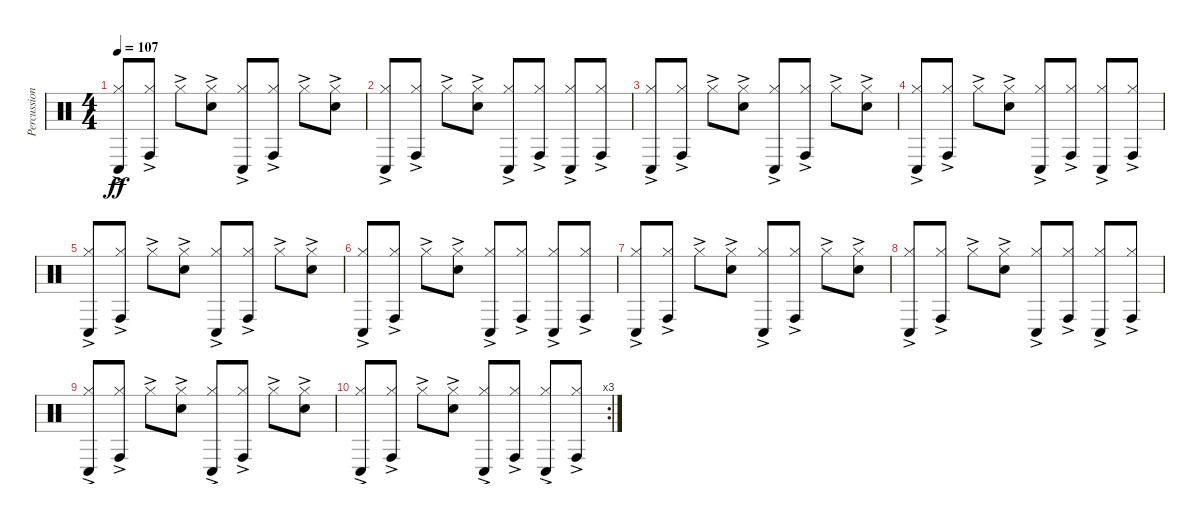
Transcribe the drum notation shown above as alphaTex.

\track ("Percussion" "Percussion") {instrument percussion}
\staff {score}
\articulation defaults
\ts (4 4)
\tempo 107
\clef neutral
\ks c
("Hi-Hat (closed)"{ac} "Conga low (hit)"{ac}).8{dy ff} ("Hi-Hat (closed)"{ac} "Conga high (hit)"{ac}).8 "Hi-Hat (closed)"{ac}.8 ("Hi-Hat (closed)"{ac} "Hand Clap (hit)"{ac}).8 ("Hi-Hat (closed)"{ac} "Conga low (hit)"{ac}).8 ("Hi-Hat (closed)"{ac} "Conga high (hit)"{ac}).8 "Hi-Hat (closed)"{ac}.8 ("Hi-Hat (closed)"{ac} "Hand Clap (hit)"{ac}).8 |
("Hi-Hat (closed)"{ac} "Conga low (hit)"{ac}).8 ("Hi-Hat (closed)"{ac} "Conga high (hit)"{ac}).8 "Hi-Hat (closed)"{ac}.8 ("Hi-Hat (closed)"{ac} "Hand Clap (hit)"{ac}).8 ("Hi-Hat (closed)"{ac} "Conga low (hit)"{ac}).8 ("Hi-Hat (closed)"{ac} "Conga high (hit)"{ac}).8 ("Hi-Hat (closed)"{ac} "Conga low (hit)"{ac}).8 ("Hi-Hat (closed)"{ac} "Conga high (hit)"{ac}).8 |
("Hi-Hat (closed)"{ac} "Conga low (hit)"{ac}).8 ("Hi-Hat (closed)"{ac} "Conga high (hit)"{ac}).8 "Hi-Hat (closed)"{ac}.8 ("Hi-Hat (closed)"{ac} "Hand Clap (hit)"{ac}).8 ("Hi-Hat (closed)"{ac} "Conga low (hit)"{ac}).8 ("Hi-Hat (closed)"{ac} "Conga high (hit)"{ac}).8 "Hi-Hat (closed)"{ac}.8 ("Hi-Hat (closed)"{ac} "Hand Clap (hit)"{ac}).8 |
("Hi-Hat (closed)"{ac} "Conga low (hit)"{ac}).8 ("Hi-Hat (closed)"{ac} "Conga high (hit)"{ac}).8 "Hi-Hat (closed)"{ac}.8 ("Hi-Hat (closed)"{ac} "Hand Clap (hit)"{ac}).8 ("Hi-Hat (closed)"{ac} "Conga low (hit)"{ac}).8 ("Hi-Hat (closed)"{ac} "Conga high (hit)"{ac}).8 ("Hi-Hat (closed)"{ac} "Conga low (hit)"{ac}).8 ("Hi-Hat (closed)"{ac} "Conga high (hit)"{ac}).8 |
("Hi-Hat (closed)"{ac} "Conga low (hit)"{ac}).8 ("Hi-Hat (closed)"{ac} "Conga high (hit)"{ac}).8 "Hi-Hat (closed)"{ac}.8 ("Hi-Hat (closed)"{ac} "Hand Clap (hit)"{ac}).8 ("Hi-Hat (closed)"{ac} "Conga low (hit)"{ac}).8 ("Hi-Hat (closed)"{ac} "Conga high (hit)"{ac}).8 "Hi-Hat (closed)"{ac}.8 ("Hi-Hat (closed)"{ac} "Hand Clap (hit)"{ac}).8 |
("Hi-Hat (closed)"{ac} "Conga low (hit)"{ac}).8 ("Hi-Hat (closed)"{ac} "Conga high (hit)"{ac}).8 "Hi-Hat (closed)"{ac}.8 ("Hi-Hat (closed)"{ac} "Hand Clap (hit)"{ac}).8 ("Hi-Hat (closed)"{ac} "Conga low (hit)"{ac}).8 ("Hi-Hat (closed)"{ac} "Conga high (hit)"{ac}).8 ("Hi-Hat (closed)"{ac} "Conga low (hit)"{ac}).8 ("Hi-Hat (closed)"{ac} "Conga high (hit)"{ac}).8 |
("Hi-Hat (closed)"{ac} "Conga low (hit)"{ac}).8 ("Hi-Hat (closed)"{ac} "Conga high (hit)"{ac}).8 "Hi-Hat (closed)"{ac}.8 ("Hi-Hat (closed)"{ac} "Hand Clap (hit)"{ac}).8 ("Hi-Hat (closed)"{ac} "Conga low (hit)"{ac}).8 ("Hi-Hat (closed)"{ac} "Conga high (hit)"{ac}).8 "Hi-Hat (closed)"{ac}.8 ("Hi-Hat (closed)"{ac} "Hand Clap (hit)"{ac}).8 |
("Hi-Hat (closed)"{ac} "Conga low (hit)"{ac}).8 ("Hi-Hat (closed)"{ac} "Conga high (hit)"{ac}).8 "Hi-Hat (closed)"{ac}.8 ("Hi-Hat (closed)"{ac} "Hand Clap (hit)"{ac}).8 ("Hi-Hat (closed)"{ac} "Conga low (hit)"{ac}).8 ("Hi-Hat (closed)"{ac} "Conga high (hit)"{ac}).8 ("Hi-Hat (closed)"{ac} "Conga low (hit)"{ac}).8 ("Hi-Hat (closed)"{ac} "Conga high (hit)"{ac}).8 |
("Hi-Hat (closed)"{ac} "Conga low (hit)"{ac}).8 ("Hi-Hat (closed)"{ac} "Conga high (hit)"{ac}).8 "Hi-Hat (closed)"{ac}.8 ("Hi-Hat (closed)"{ac} "Hand Clap (hit)"{ac}).8 ("Hi-Hat (closed)"{ac} "Conga low (hit)"{ac}).8 ("Hi-Hat (closed)"{ac} "Conga high (hit)"{ac}).8 "Hi-Hat (closed)"{ac}.8 ("Hi-Hat (closed)"{ac} "Hand Clap (hit)"{ac}).8 |
\rc 3
("Hi-Hat (closed)"{ac} "Conga low (hit)"{ac}).8 ("Hi-Hat (closed)"{ac} "Conga high (hit)"{ac}).8 "Hi-Hat (closed)"{ac}.8 ("Hi-Hat (closed)"{ac} "Hand Clap (hit)"{ac}).8 ("Hi-Hat (closed)"{ac} "Conga low (hit)"{ac}).8 ("Hi-Hat (closed)"{ac} "Conga high (hit)"{ac}).8 ("Hi-Hat (closed)"{ac} "Conga low (hit)"{ac}).8 ("Hi-Hat (closed)"{ac} "Conga high (hit)"{ac}).8
